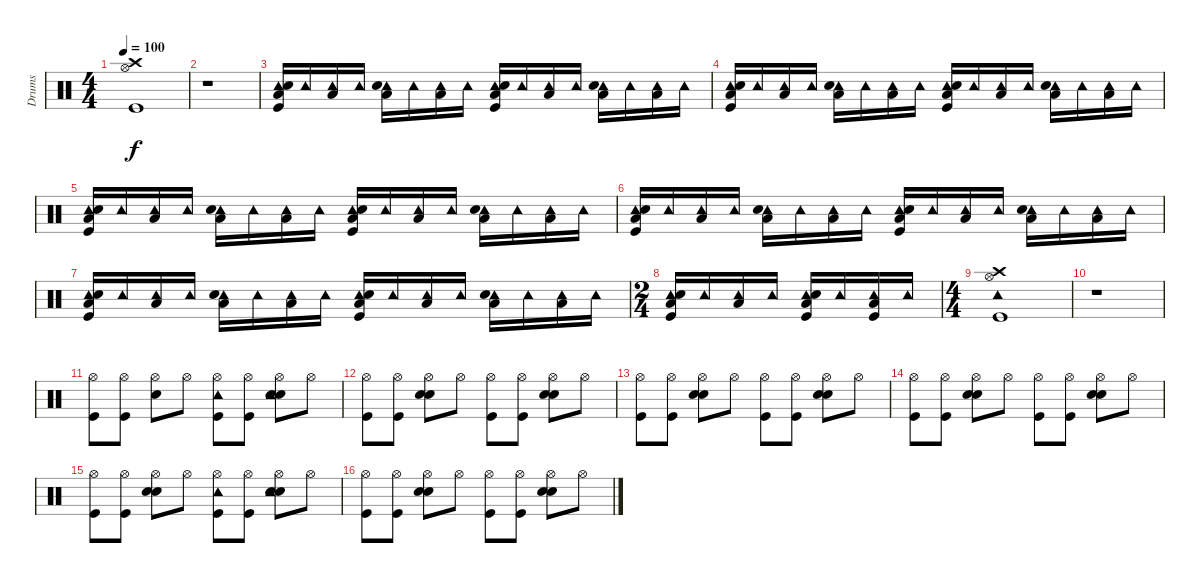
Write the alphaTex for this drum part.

\track ("Drums" "Drums") {instrument percussion}
\staff {score}
\articulation defaults
\ts (4 4)
\tempo 100
\clef neutral
\ks c
("Hi-Hat (open)" "Crash high (hit)" "Kick (hit)").1{dy f} |
r.1 |
("Tambourine (hit)" "Snare (hit) 2" "Low Floor Tom (hit)" "Kick (hit)").16 "Tambourine (hit)".16 ("Tambourine (hit)" "Low Floor Tom (hit)").16 "Tambourine (hit)".16 ("Tambourine (hit)" "Snare (hit) 2" "Low Floor Tom (hit)").16 "Tambourine (hit)".16 ("Tambourine (hit)" "Low Floor Tom (hit)").16 "Tambourine (hit)".16 ("Tambourine (hit)" "Snare (hit) 2" "Low Floor Tom (hit)" "Kick (hit)").16 "Tambourine (hit)".16 ("Tambourine (hit)" "Low Floor Tom (hit)").16 "Tambourine (hit)".16 ("Tambourine (hit)" "Snare (hit) 2" "Low Floor Tom (hit)").16 "Tambourine (hit)".16 ("Tambourine (hit)" "Low Floor Tom (hit)").16 "Tambourine (hit)".16 |
("Tambourine (hit)" "Snare (hit) 2" "Low Floor Tom (hit)" "Kick (hit)").16 "Tambourine (hit)".16 ("Tambourine (hit)" "Low Floor Tom (hit)").16 "Tambourine (hit)".16 ("Tambourine (hit)" "Snare (hit) 2" "Low Floor Tom (hit)").16 "Tambourine (hit)".16 ("Tambourine (hit)" "Low Floor Tom (hit)").16 "Tambourine (hit)".16 ("Tambourine (hit)" "Snare (hit) 2" "Low Floor Tom (hit)" "Kick (hit)").16 "Tambourine (hit)".16 ("Tambourine (hit)" "Low Floor Tom (hit)").16 "Tambourine (hit)".16 ("Tambourine (hit)" "Snare (hit) 2" "Low Floor Tom (hit)").16 "Tambourine (hit)".16 ("Tambourine (hit)" "Low Floor Tom (hit)").16 "Tambourine (hit)".16 |
("Tambourine (hit)" "Snare (hit) 2" "Low Floor Tom (hit)" "Kick (hit)").16 "Tambourine (hit)".16 ("Tambourine (hit)" "Low Floor Tom (hit)").16 "Tambourine (hit)".16 ("Tambourine (hit)" "Snare (hit) 2" "Low Floor Tom (hit)").16 "Tambourine (hit)".16 ("Tambourine (hit)" "Low Floor Tom (hit)").16 "Tambourine (hit)".16 ("Tambourine (hit)" "Snare (hit) 2" "Low Floor Tom (hit)" "Kick (hit)").16 "Tambourine (hit)".16 ("Tambourine (hit)" "Low Floor Tom (hit)").16 "Tambourine (hit)".16 ("Tambourine (hit)" "Snare (hit) 2" "Low Floor Tom (hit)").16 "Tambourine (hit)".16 ("Tambourine (hit)" "Low Floor Tom (hit)").16 "Tambourine (hit)".16 |
("Tambourine (hit)" "Snare (hit) 2" "Low Floor Tom (hit)" "Kick (hit)").16 "Tambourine (hit)".16 ("Tambourine (hit)" "Low Floor Tom (hit)").16 "Tambourine (hit)".16 ("Tambourine (hit)" "Snare (hit) 2" "Low Floor Tom (hit)").16 "Tambourine (hit)".16 ("Tambourine (hit)" "Low Floor Tom (hit)").16 "Tambourine (hit)".16 ("Tambourine (hit)" "Snare (hit) 2" "Low Floor Tom (hit)" "Kick (hit)").16 "Tambourine (hit)".16 ("Tambourine (hit)" "Low Floor Tom (hit)").16 "Tambourine (hit)".16 ("Tambourine (hit)" "Snare (hit) 2" "Low Floor Tom (hit)").16 "Tambourine (hit)".16 ("Tambourine (hit)" "Low Floor Tom (hit)").16 "Tambourine (hit)".16 |
("Tambourine (hit)" "Snare (hit) 2" "Low Floor Tom (hit)" "Kick (hit)").16 "Tambourine (hit)".16 ("Tambourine (hit)" "Low Floor Tom (hit)").16 "Tambourine (hit)".16 ("Tambourine (hit)" "Snare (hit) 2" "Low Floor Tom (hit)").16 "Tambourine (hit)".16 ("Tambourine (hit)" "Low Floor Tom (hit)").16 "Tambourine (hit)".16 ("Tambourine (hit)" "Snare (hit) 2" "Low Floor Tom (hit)" "Kick (hit)").16 "Tambourine (hit)".16 ("Tambourine (hit)" "Low Floor Tom (hit)").16 "Tambourine (hit)".16 ("Tambourine (hit)" "Snare (hit) 2" "Low Floor Tom (hit)").16 "Tambourine (hit)".16 ("Tambourine (hit)" "Low Floor Tom (hit)").16 "Tambourine (hit)".16 |
\ts (2 4)
("Tambourine (hit)" "Snare (hit) 2" "Low Floor Tom (hit)" "Kick (hit)").16 "Tambourine (hit)".16 ("Tambourine (hit)" "Low Floor Tom (hit)").16 "Tambourine (hit)".16 ("Tambourine (hit)" "Snare (hit) 2" "Low Floor Tom (hit)" "Kick (hit)").16 "Tambourine (hit)".16 ("Tambourine (hit)" "Low Floor Tom (hit)" "Kick (hit)").16 "Tambourine (hit)".16 |
\ts (4 4)
("Crash high (hit)" "Tambourine (hit)" "Hi-Hat (open)" "Kick (hit)").1 |
r.1 |
("Hi-Hat (open)" "Kick (hit)").8 ("Hi-Hat (open)" "Kick (hit)").8 ("Hi-Hat (open)" "Snare (hit) 2").8 "Hi-Hat (open)".8 ("Hi-Hat (open)" "Tambourine (hit)" "Kick (hit)").8 ("Hi-Hat (open)" "Kick (hit)").8 ("Hi-Hat (open)" "Hand Clap (hit)" "Snare (hit) 2" "Tambourine (hit)").8 "Hi-Hat (open)".8 |
("Hi-Hat (open)" "Kick (hit)").8 ("Hi-Hat (open)" "Kick (hit)").8 ("Hi-Hat (open)" "Hand Clap (hit)" "Snare (hit) 2").8 "Hi-Hat (open)".8 ("Hi-Hat (open)" "Kick (hit)").8 ("Hi-Hat (open)" "Kick (hit)").8 ("Hi-Hat (open)" "Hand Clap (hit)" "Snare (hit) 2").8 "Hi-Hat (open)".8 |
("Hi-Hat (open)" "Kick (hit)").8 ("Hi-Hat (open)" "Kick (hit)").8 ("Hi-Hat (open)" "Hand Clap (hit)" "Snare (hit) 2").8 "Hi-Hat (open)".8 ("Hi-Hat (open)" "Kick (hit)").8 ("Hi-Hat (open)" "Kick (hit)").8 ("Hi-Hat (open)" "Hand Clap (hit)" "Snare (hit) 2").8 "Hi-Hat (open)".8 |
("Hi-Hat (open)" "Kick (hit)").8 ("Hi-Hat (open)" "Kick (hit)").8 ("Hi-Hat (open)" "Hand Clap (hit)" "Snare (hit) 2").8 "Hi-Hat (open)".8 ("Hi-Hat (open)" "Kick (hit)").8 ("Hi-Hat (open)" "Kick (hit)").8 ("Hi-Hat (open)" "Hand Clap (hit)" "Snare (hit) 2").8 "Hi-Hat (open)".8 |
("Hi-Hat (open)" "Kick (hit)").8 ("Hi-Hat (open)" "Kick (hit)").8 ("Hi-Hat (open)" "Hand Clap (hit)" "Snare (hit) 2").8 "Hi-Hat (open)".8 ("Hi-Hat (open)" "Tambourine (hit)" "Kick (hit)").8 ("Hi-Hat (open)" "Kick (hit)").8 ("Hi-Hat (open)" "Hand Clap (hit)" "Snare (hit) 2" "Tambourine (hit)").8 "Hi-Hat (open)".8 |
("Hi-Hat (open)" "Kick (hit)").8 ("Hi-Hat (open)" "Kick (hit)").8 ("Hi-Hat (open)" "Hand Clap (hit)" "Snare (hit) 2").8 "Hi-Hat (open)".8 ("Hi-Hat (open)" "Kick (hit)").8 ("Hi-Hat (open)" "Kick (hit)").8 ("Hi-Hat (open)" "Hand Clap (hit)" "Snare (hit) 2").8 "Hi-Hat (open)".8
